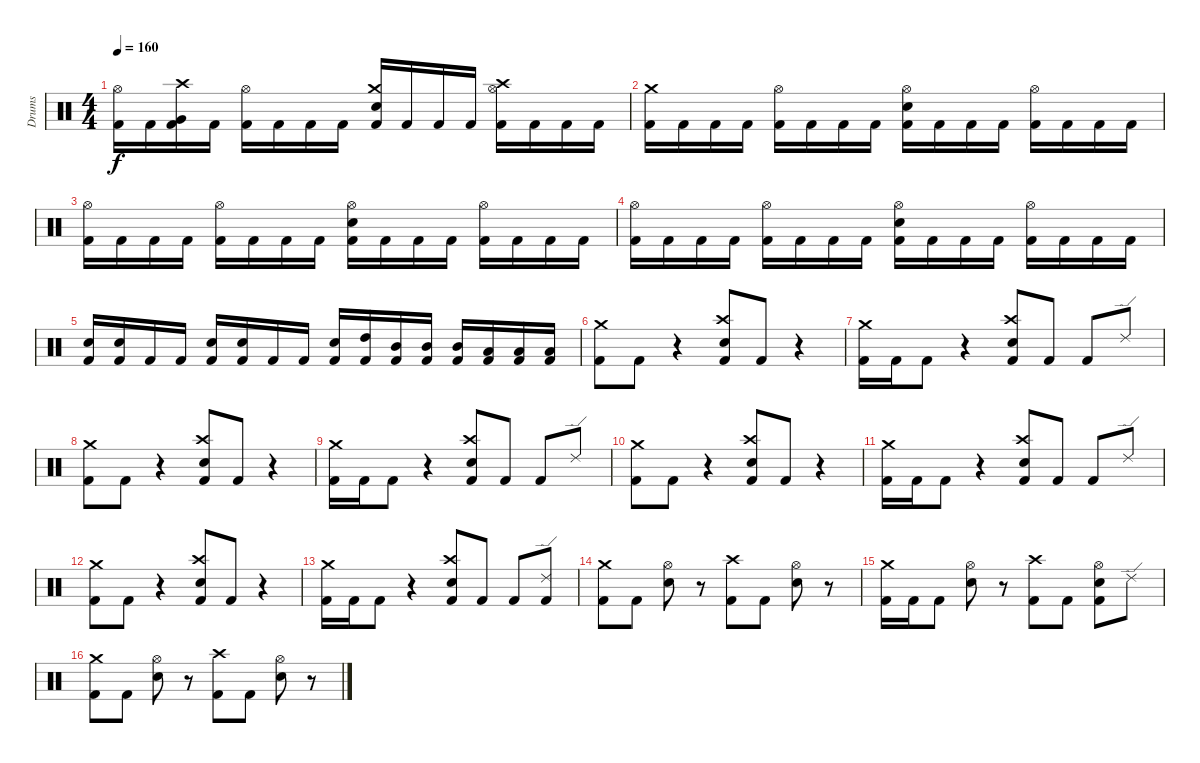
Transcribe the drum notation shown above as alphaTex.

\track ("Drums" "Drums") {instrument percussion}
\staff {score}
\articulation defaults
\ts (4 4)
\tempo 160
\clef neutral
\ks c
("Hi-Hat (open)" "Kick (hit) 2").16{dy f} "Kick (hit) 2".16 ("Crash high (hit)" "Kick (hit) 2" "Very Low Tom (hit)").16 "Kick (hit) 2".16 ("Hi-Hat (open)" "Kick (hit) 2").16 "Kick (hit) 2".16 "Kick (hit) 2".16 "Kick (hit) 2".16 ("Crash medium (hit)" "Kick (hit) 2" "Snare (hit) 2").16 "Kick (hit) 2".16 "Kick (hit) 2".16 "Kick (hit) 2".16 ("Hi-Hat (open)" "Crash high (hit)" "Kick (hit) 2").16 "Kick (hit) 2".16 "Kick (hit) 2".16 "Kick (hit) 2".16 |
("Crash medium (hit)" "Kick (hit) 2").16 "Kick (hit) 2".16 "Kick (hit) 2".16 "Kick (hit) 2".16 ("Hi-Hat (open)" "Kick (hit) 2").16 "Kick (hit) 2".16 "Kick (hit) 2".16 "Kick (hit) 2".16 ("Hi-Hat (open)" "Kick (hit) 2" "Snare (hit) 2").16 "Kick (hit) 2".16 "Kick (hit) 2".16 "Kick (hit) 2".16 ("Hi-Hat (open)" "Kick (hit) 2").16 "Kick (hit) 2".16 "Kick (hit) 2".16 "Kick (hit) 2".16 |
("Hi-Hat (open)" "Kick (hit) 2").16 "Kick (hit) 2".16 "Kick (hit) 2".16 "Kick (hit) 2".16 ("Hi-Hat (open)" "Kick (hit) 2").16 "Kick (hit) 2".16 "Kick (hit) 2".16 "Kick (hit) 2".16 ("Hi-Hat (open)" "Kick (hit) 2" "Snare (hit) 2").16 "Kick (hit) 2".16 "Kick (hit) 2".16 "Kick (hit) 2".16 ("Hi-Hat (open)" "Kick (hit) 2").16 "Kick (hit) 2".16 "Kick (hit) 2".16 "Kick (hit) 2".16 |
("Hi-Hat (open)" "Kick (hit) 2").16 "Kick (hit) 2".16 "Kick (hit) 2".16 "Kick (hit) 2".16 ("Hi-Hat (open)" "Kick (hit) 2").16 "Kick (hit) 2".16 "Kick (hit) 2".16 "Kick (hit) 2".16 ("Hi-Hat (open)" "Kick (hit) 2" "Snare (hit) 2").16 "Kick (hit) 2".16 "Kick (hit) 2".16 "Kick (hit) 2".16 ("Hi-Hat (open)" "Kick (hit) 2").16 "Kick (hit) 2".16 "Kick (hit) 2".16 "Kick (hit) 2".16 |
("Kick (hit) 2" "Snare (hit) 2").16 ("Kick (hit) 2" "Snare (hit) 2").16 "Kick (hit) 2".16 "Kick (hit) 2".16 ("Kick (hit) 2" "Snare (hit) 2").16 ("Kick (hit) 2" "Snare (hit) 2").16 "Kick (hit) 2".16 "Kick (hit) 2".16 ("Kick (hit) 2" "Snare (hit) 2").16 ("Kick (hit) 2" "High Tom (hit)").16 ("Kick (hit) 2" "Mid Tom (hit)").16 ("Kick (hit) 2" "Mid Tom (hit)").16 ("Kick (hit) 2" "Mid Tom (hit)").16 ("Kick (hit) 2" "Low Tom (hit)").16 ("Kick (hit) 2" "Low Tom (hit)").16 ("Kick (hit) 2" "Low Tom (hit)").16 |
("Crash medium (hit)" "Kick (hit) 2").8 "Kick (hit) 2".8 r.4 ("Crash high (hit)" "Kick (hit) 2" "Snare (hit) 2").8 "Kick (hit) 2".8 r.4 |
("Crash medium (hit)" "Kick (hit) 2").16 "Kick (hit) 2".16 "Kick (hit) 2".8 r.4 ("Crash high (hit)" "Kick (hit) 2" "Snare (hit) 2").8 "Kick (hit) 2".8 "Kick (hit) 2".8 "Ride (edge) 2".8 |
("Crash medium (hit)" "Kick (hit) 2").8 "Kick (hit) 2".8 r.4 ("Crash high (hit)" "Kick (hit) 2" "Snare (hit) 2").8 "Kick (hit) 2".8 r.4 |
("Crash medium (hit)" "Kick (hit) 2").16 "Kick (hit) 2".16 "Kick (hit) 2".8 r.4 ("Crash high (hit)" "Kick (hit) 2" "Snare (hit) 2").8 "Kick (hit) 2".8 "Kick (hit) 2".8 "Ride (edge) 2".8 |
("Crash medium (hit)" "Kick (hit) 2").8 "Kick (hit) 2".8 r.4 ("Crash high (hit)" "Kick (hit) 2" "Snare (hit) 2").8 "Kick (hit) 2".8 r.4 |
("Crash medium (hit)" "Kick (hit) 2").16 "Kick (hit) 2".16 "Kick (hit) 2".8 r.4 ("Crash high (hit)" "Kick (hit) 2" "Snare (hit) 2").8 "Kick (hit) 2".8 "Kick (hit) 2".8 "Ride (edge) 2".8 |
("Crash medium (hit)" "Kick (hit) 2").8 "Kick (hit) 2".8 r.4 ("Crash high (hit)" "Kick (hit) 2" "Snare (hit) 2").8 "Kick (hit) 2".8 r.4 |
("Crash medium (hit)" "Kick (hit) 2").16 "Kick (hit) 2".16 "Kick (hit) 2".8 r.4 ("Crash high (hit)" "Kick (hit) 2" "Snare (hit) 2").8 "Kick (hit) 2".8 "Kick (hit) 2".8 ("Ride (edge) 2" "Kick (hit) 2").8 |
("Crash medium (hit)" "Kick (hit) 2").8 "Kick (hit) 2".8 ("Hi-Hat (open)" "Snare (hit) 2").8 r.8 ("Crash high (hit)" "Kick (hit) 2").8 "Kick (hit) 2".8 ("Hi-Hat (open)" "Snare (hit) 2").8 r.8 |
("Crash medium (hit)" "Kick (hit) 2").16 "Kick (hit) 2".16 "Kick (hit) 2".8 ("Hi-Hat (open)" "Snare (hit) 2").8 r.8 ("Crash high (hit)" "Kick (hit) 2").8 "Kick (hit) 2".8 ("Hi-Hat (open)" "Kick (hit) 2" "Snare (hit) 2").8 "Ride (edge) 2".8 |
("Crash medium (hit)" "Kick (hit) 2").8 "Kick (hit) 2".8 ("Hi-Hat (open)" "Snare (hit) 2").8 r.8 ("Crash high (hit)" "Kick (hit) 2").8 "Kick (hit) 2".8 ("Hi-Hat (open)" "Snare (hit) 2").8 r.8
